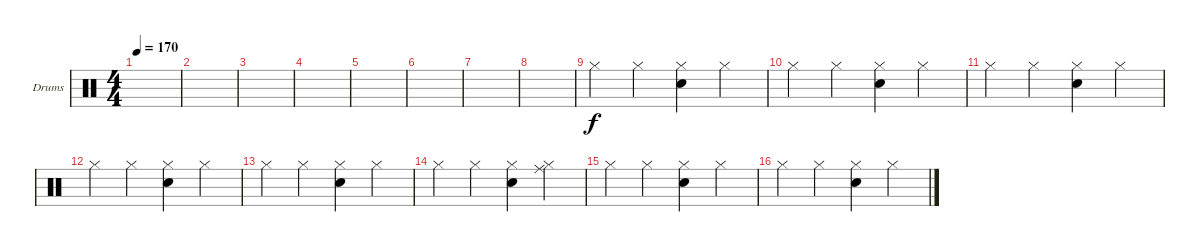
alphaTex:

\defaultSystemsLayout 4
\bracketExtendMode groupsimilarinstruments
\firstSystemTrackNameOrientation horizontal
\otherSystemsTrackNameOrientation horizontal
\track ("Drumkit" "Drums") {instrument percussion}
\staff {score}
\articulation defaults
\ts (4 4)
\tempo 170
\clef neutral
\scale
0.474178
\ks c
|
\scale
0.262911 |
\scale
0.262911 |
\scale
0.333333 |
\scale
0.333333 |
\scale
0.333333 |
\scale
0.333333 |
\scale
0.333333 |
\scale
0.333333 "Hi-Hat (closed)".4 "Hi-Hat (closed)".4 ("Hi-Hat (closed)" "Snare (hit) 2").4 "Hi-Hat (closed)".4 |
\scale
0.333333 "Hi-Hat (closed)".4 "Hi-Hat (closed)".4 ("Hi-Hat (closed)" "Snare (hit) 2").4 "Hi-Hat (closed)".4 |
\scale
0.333333 "Hi-Hat (closed)".4 "Hi-Hat (closed)".4 ("Hi-Hat (closed)" "Snare (hit) 2").4 "Hi-Hat (closed)".4 |
\scale
0.333333 "Hi-Hat (closed)".4 "Hi-Hat (closed)".4 ("Hi-Hat (closed)" "Snare (hit) 2").4 "Hi-Hat (closed)".4 |
\scale
0.333333 "Hi-Hat (closed)".4 "Hi-Hat (closed)".4 ("Hi-Hat (closed)" "Snare (hit) 2").4 "Hi-Hat (closed)".4 |
\scale
0.333333 "Hi-Hat (closed)".4 "Hi-Hat (closed)".4 ("Hi-Hat (closed)" "Snare (hit) 2").4 ("Hi-Hat (closed)" "Ride (middle)").4 |
\scale
0.333333 "Hi-Hat (closed)".4 "Hi-Hat (closed)".4 ("Hi-Hat (closed)" "Snare (hit) 2").4 "Hi-Hat (closed)".4 |
"Hi-Hat (closed)".4 "Hi-Hat (closed)".4 ("Hi-Hat (closed)" "Snare (hit) 2").4 "Hi-Hat (closed)".4
